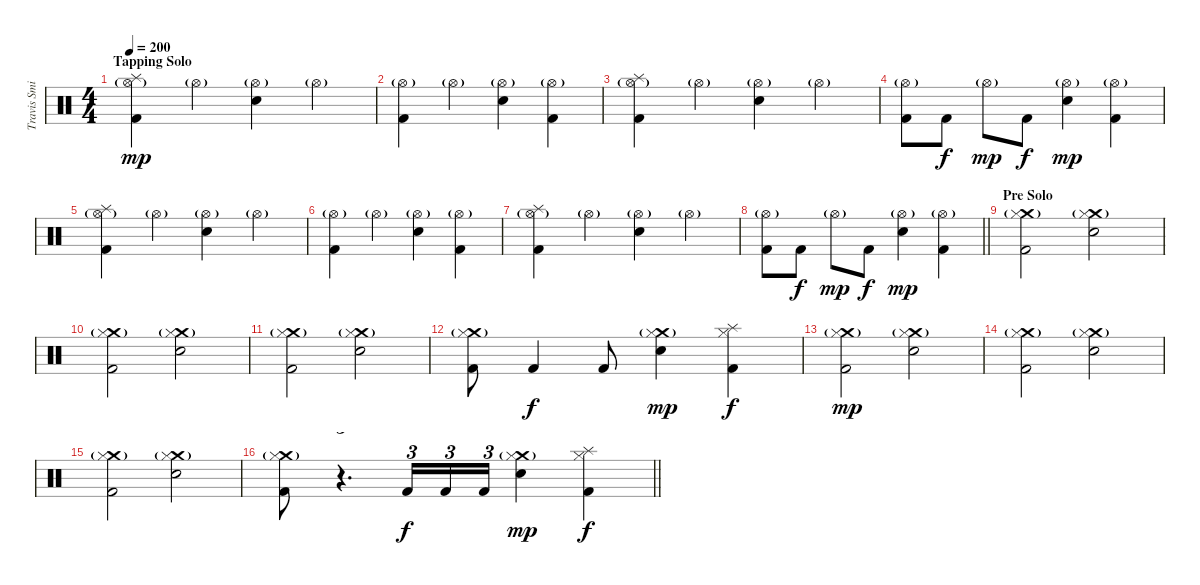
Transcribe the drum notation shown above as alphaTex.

\track ("Travis Smith" "Travis Smi") {instrument percussion}
\staff {score}
\articulation defaults
\ts (4 4)
\section ("" "Tapping Solo")
\tempo 200
\clef neutral
\ks c
("Hi-Hat (open)"{g} "Splash (hit)" "Kick (hit) 2").4{dy mp} "Hi-Hat (open)"{g}.4 ("Hi-Hat (open)"{g} "Electric Snare (hit)").4 "Hi-Hat (open)"{g}.4 |
("Hi-Hat (open)"{g} "Kick (hit) 2").4 "Hi-Hat (open)"{g}.4 ("Hi-Hat (open)"{g} "Electric Snare (hit)").4 ("Hi-Hat (open)"{g} "Kick (hit) 2").4 |
("Hi-Hat (open)"{g} "Splash (hit)" "Kick (hit) 2").4 "Hi-Hat (open)"{g}.4 ("Hi-Hat (open)"{g} "Electric Snare (hit)").4 "Hi-Hat (open)"{g}.4 |
("Hi-Hat (open)"{g} "Kick (hit) 2").8 "Kick (hit) 2".8{dy f} "Hi-Hat (open)"{g}.8{dy mp} "Kick (hit) 2".8{dy f} ("Hi-Hat (open)"{g} "Electric Snare (hit)").4{dy mp} ("Hi-Hat (open)"{g} "Kick (hit) 2").4 |
("Hi-Hat (open)"{g} "Splash (hit)" "Kick (hit) 2").4 "Hi-Hat (open)"{g}.4 ("Hi-Hat (open)"{g} "Electric Snare (hit)").4 "Hi-Hat (open)"{g}.4 |
("Hi-Hat (open)"{g} "Kick (hit) 2").4 "Hi-Hat (open)"{g}.4 ("Hi-Hat (open)"{g} "Electric Snare (hit)").4 ("Hi-Hat (open)"{g} "Kick (hit) 2").4 |
("Hi-Hat (open)"{g} "Splash (hit)" "Kick (hit) 2").4 "Hi-Hat (open)"{g}.4 ("Hi-Hat (open)"{g} "Electric Snare (hit)").4 "Hi-Hat (open)"{g}.4 |
\barLineRight lightlight
("Hi-Hat (open)"{g} "Kick (hit) 2").8 "Kick (hit) 2".8{dy f} "Hi-Hat (open)"{g}.8{dy mp} "Kick (hit) 2".8{dy f} ("Hi-Hat (open)"{g} "Electric Snare (hit)").4{dy mp} ("Hi-Hat (open)"{g} "Kick (hit) 2").4 |
\section ("" "Pre Solo")
("Crash medium (hit)"{g} "Hi-Hat (closed)" "Kick (hit) 2").2 ("Crash medium (hit)"{g} "Hi-Hat (closed)" "Electric Snare (hit)").2 |
("Crash medium (hit)"{g} "Hi-Hat (closed)" "Kick (hit) 2").2 ("Crash medium (hit)"{g} "Hi-Hat (closed)" "Electric Snare (hit)").2 |
("Crash medium (hit)"{g} "Hi-Hat (closed)" "Kick (hit) 2").2 ("Crash medium (hit)"{g} "Hi-Hat (closed)" "Electric Snare (hit)").2 |
("Crash medium (hit)"{g} "Hi-Hat (closed)" "Kick (hit) 2").8 "Kick (hit) 2".4{dy f} "Kick (hit) 2".8 ("Crash medium (hit)"{g} "Hi-Hat (closed)" "Electric Snare (hit)").4{dy mp} ("Splash (hit)" "Hi-Hat (closed)" "Kick (hit) 2").4{dy f} |
("Crash medium (hit)"{g} "Hi-Hat (closed)" "Kick (hit) 2").2{dy mp} ("Crash medium (hit)"{g} "Hi-Hat (closed)" "Electric Snare (hit)").2 |
("Crash medium (hit)"{g} "Hi-Hat (closed)" "Kick (hit) 2").2 ("Crash medium (hit)"{g} "Hi-Hat (closed)" "Electric Snare (hit)").2 |
("Crash medium (hit)"{g} "Hi-Hat (closed)" "Kick (hit) 2").2 ("Crash medium (hit)"{g} "Hi-Hat (closed)" "Electric Snare (hit)").2 |
\barLineRight lightlight
("Crash medium (hit)"{g} "Hi-Hat (closed)" "Kick (hit) 2").8 r.4{d tu (3 2)} "Kick (hit) 2".16{tu (3 2) dy f} "Kick (hit) 2".16{tu (3 2)} "Kick (hit) 2".16{tu (3 2)} ("Crash medium (hit)"{g} "Hi-Hat (closed)" "Electric Snare (hit)").4{dy mp} ("Splash (hit)" "Hi-Hat (closed)" "Kick (hit) 2").4{dy f}
